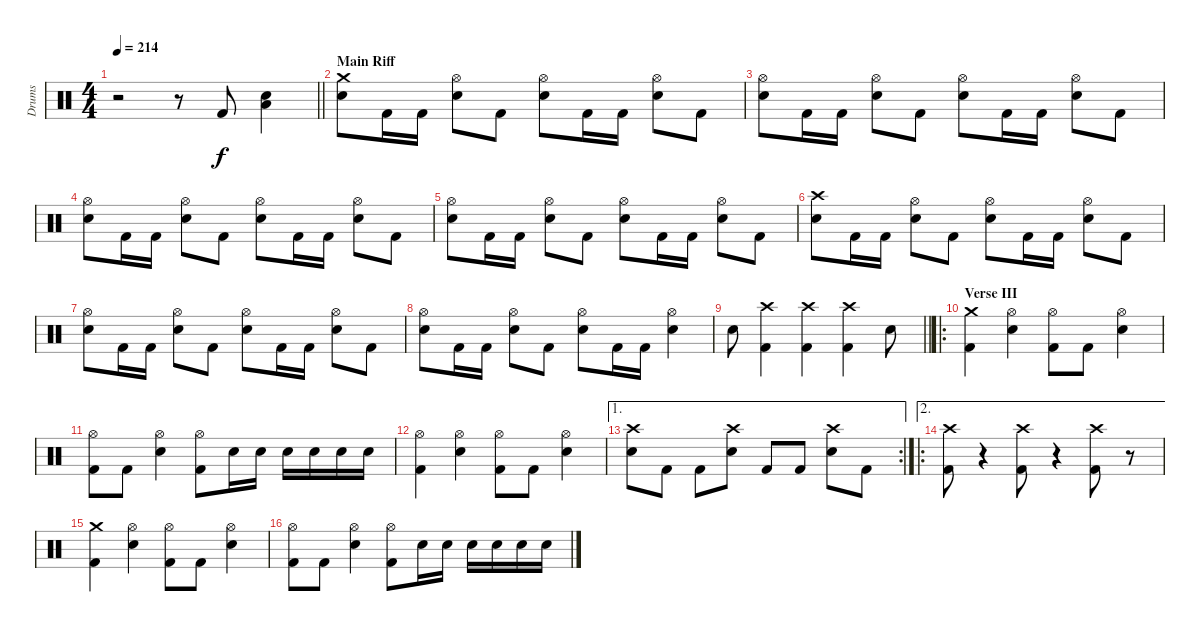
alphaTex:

\track ("Drums" "Drums") {instrument percussion}
\staff {score}
\articulation defaults
\ts (4 4)
\tempo 214
\clef neutral
\barLineRight lightlight
\ks c
r.2{dy f} r.8 "Kick (hit) 2".8{volume 16 balance 8} ("Low Floor Tom (hit)" "Electric Snare (hit)").4 |
\section ("" "Main Riff")
("Crash medium (hit)" "Electric Snare (hit)").8 "Kick (hit) 2".16 "Kick (hit) 2".16 ("Hi-Hat (open)" "Electric Snare (hit)").8 "Kick (hit) 2".8 ("Hi-Hat (open)" "Electric Snare (hit)").8 "Kick (hit) 2".16 "Kick (hit) 2".16 ("Hi-Hat (open)" "Electric Snare (hit)").8 "Kick (hit) 2".8 |
("Hi-Hat (open)" "Electric Snare (hit)").8 "Kick (hit) 2".16 "Kick (hit) 2".16 ("Hi-Hat (open)" "Electric Snare (hit)").8 "Kick (hit) 2".8 ("Hi-Hat (open)" "Electric Snare (hit)").8 "Kick (hit) 2".16 "Kick (hit) 2".16 ("Hi-Hat (open)" "Electric Snare (hit)").8 "Kick (hit) 2".8 |
("Hi-Hat (open)" "Electric Snare (hit)").8 "Kick (hit) 2".16 "Kick (hit) 2".16 ("Hi-Hat (open)" "Electric Snare (hit)").8 "Kick (hit) 2".8 ("Hi-Hat (open)" "Electric Snare (hit)").8 "Kick (hit) 2".16 "Kick (hit) 2".16 ("Hi-Hat (open)" "Electric Snare (hit)").8 "Kick (hit) 2".8 |
("Hi-Hat (open)" "Electric Snare (hit)").8 "Kick (hit) 2".16 "Kick (hit) 2".16 ("Hi-Hat (open)" "Electric Snare (hit)").8 "Kick (hit) 2".8 ("Hi-Hat (open)" "Electric Snare (hit)").8 "Kick (hit) 2".16 "Kick (hit) 2".16 ("Hi-Hat (open)" "Electric Snare (hit)").8 "Kick (hit) 2".8 |
("Crash high (hit)" "Electric Snare (hit)").8 "Kick (hit) 2".16 "Kick (hit) 2".16 ("Hi-Hat (open)" "Electric Snare (hit)").8 "Kick (hit) 2".8 ("Hi-Hat (open)" "Electric Snare (hit)").8 "Kick (hit) 2".16 "Kick (hit) 2".16 ("Hi-Hat (open)" "Electric Snare (hit)").8 "Kick (hit) 2".8 |
("Hi-Hat (open)" "Electric Snare (hit)").8 "Kick (hit) 2".16 "Kick (hit) 2".16 ("Hi-Hat (open)" "Electric Snare (hit)").8 "Kick (hit) 2".8 ("Hi-Hat (open)" "Electric Snare (hit)").8 "Kick (hit) 2".16 "Kick (hit) 2".16 ("Hi-Hat (open)" "Electric Snare (hit)").8 "Kick (hit) 2".8 |
("Hi-Hat (open)" "Electric Snare (hit)").8 "Kick (hit) 2".16 "Kick (hit) 2".16 ("Hi-Hat (open)" "Electric Snare (hit)").8 "Kick (hit) 2".8 ("Hi-Hat (open)" "Electric Snare (hit)").8 "Kick (hit) 2".16 "Kick (hit) 2".16 ("Hi-Hat (open)" "Electric Snare (hit)").4 |
\barLineRight lightlight "Electric Snare (hit)".8
("Crash high (hit)" "Kick (hit) 2").4 ("Crash high (hit)" "Kick (hit) 2").4 ("Crash high (hit)" "Kick (hit) 2").4 "Electric Snare (hit)".8 |
\ro
\section ("" "Verse III")
("Crash medium (hit)" "Kick (hit) 2").4 ("Hi-Hat (open)" "Electric Snare (hit)").4 ("Hi-Hat (open)" "Kick (hit) 2").8 "Kick (hit) 2".8 ("Hi-Hat (open)" "Electric Snare (hit)").4 |
("Hi-Hat (open)" "Kick (hit) 2").8 "Kick (hit) 2".8 ("Hi-Hat (open)" "Electric Snare (hit)").4 ("Hi-Hat (open)" "Kick (hit) 2").8 "Electric Snare (hit)".16 "Electric Snare (hit)".16 "Electric Snare (hit)".16 "Electric Snare (hit)".16 "Electric Snare (hit)".16 "Electric Snare (hit)".16 |
("Hi-Hat (open)" "Kick (hit) 2").4 ("Hi-Hat (open)" "Electric Snare (hit)").4 ("Hi-Hat (open)" "Kick (hit) 2").8 "Kick (hit) 2".8 ("Hi-Hat (open)" "Electric Snare (hit)").4 |
\ae 1
\rc 2
("Crash high (hit)" "Electric Snare (hit)").8 "Kick (hit) 2".8 "Kick (hit) 2".8 ("Crash high (hit)" "Electric Snare (hit)").8 "Kick (hit) 2".8 "Kick (hit) 2".8 ("Crash high (hit)" "Electric Snare (hit)").8 "Kick (hit) 2".8 |
\ae 2
\ro
("Crash high (hit)" "Kick (hit) 2").8 r.4{volume 0} ("Crash high (hit)" "Kick (hit) 2").8{volume 16} r.4{volume 0} ("Crash high (hit)" "Kick (hit) 2").8{volume 16} r.8{volume 0} |
("Crash medium (hit)" "Kick (hit) 2").4{volume 16} ("Hi-Hat (open)" "Electric Snare (hit)").4 ("Hi-Hat (open)" "Kick (hit) 2").8 "Kick (hit) 2".8 ("Hi-Hat (open)" "Electric Snare (hit)").4 |
("Hi-Hat (open)" "Kick (hit) 2").8 "Kick (hit) 2".8 ("Hi-Hat (open)" "Electric Snare (hit)").4 ("Hi-Hat (open)" "Kick (hit) 2").8 "Electric Snare (hit)".16 "Electric Snare (hit)".16 "Electric Snare (hit)".16 "Electric Snare (hit)".16 "Electric Snare (hit)".16 "Electric Snare (hit)".16
